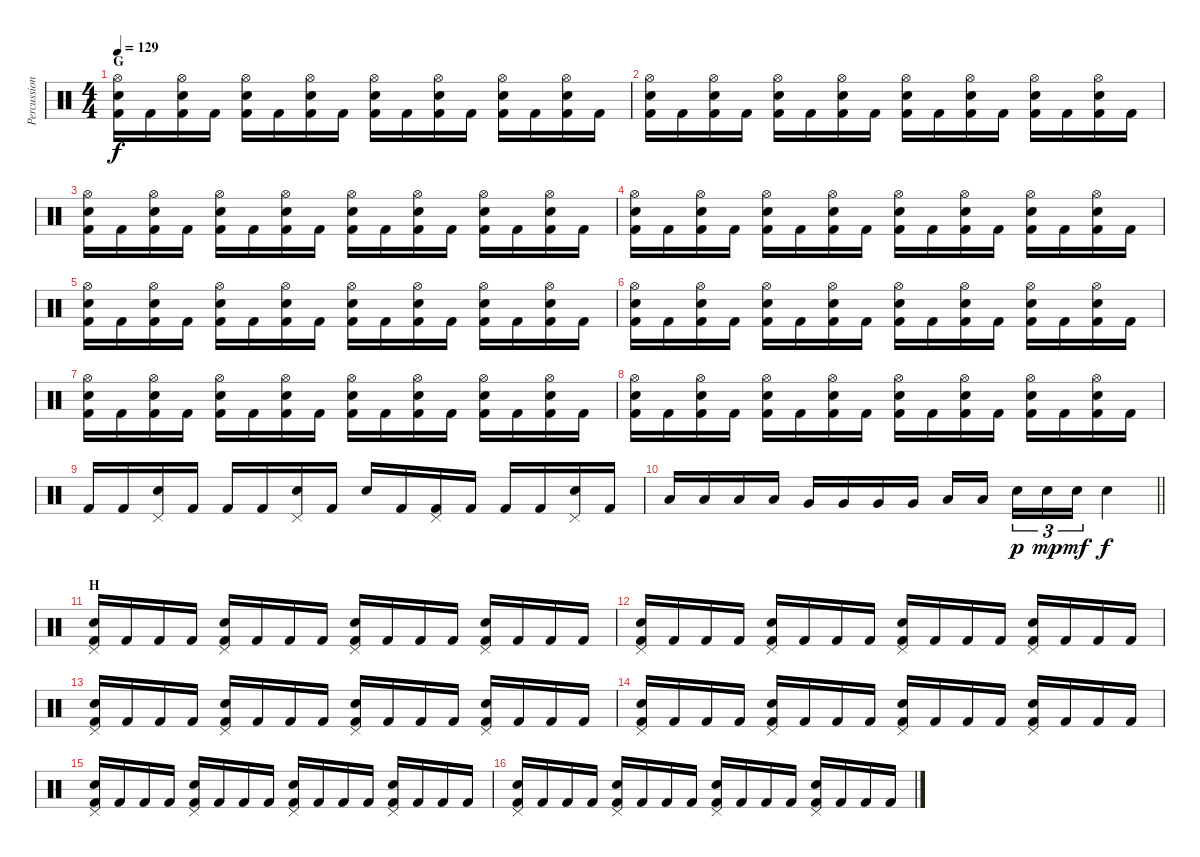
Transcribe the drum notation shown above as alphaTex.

\track ("Percussion" "Percussion") {instrument percussion}
\staff {score}
\articulation defaults
\ts (4 4)
\section ("" "G")
\tempo 129
\clef neutral
\ks c
("Hi-Hat (open)" "Snare (hit) 2" "Kick (hit) 2").16{dy f} "Kick (hit) 2".16 ("Hi-Hat (open)" "Snare (hit) 2" "Kick (hit) 2").16 "Kick (hit) 2".16 ("Hi-Hat (open)" "Snare (hit) 2" "Kick (hit) 2").16 "Kick (hit) 2".16 ("Hi-Hat (open)" "Snare (hit) 2" "Kick (hit) 2").16 "Kick (hit) 2".16 ("Hi-Hat (open)" "Snare (hit) 2" "Kick (hit) 2").16 "Kick (hit) 2".16 ("Hi-Hat (open)" "Snare (hit) 2" "Kick (hit) 2").16 "Kick (hit) 2".16 ("Hi-Hat (open)" "Snare (hit) 2" "Kick (hit) 2").16 "Kick (hit) 2".16 ("Hi-Hat (open)" "Snare (hit) 2" "Kick (hit) 2").16 "Kick (hit) 2".16 |
("Hi-Hat (open)" "Snare (hit) 2" "Kick (hit) 2").16 "Kick (hit) 2".16 ("Hi-Hat (open)" "Snare (hit) 2" "Kick (hit) 2").16 "Kick (hit) 2".16 ("Hi-Hat (open)" "Snare (hit) 2" "Kick (hit) 2").16 "Kick (hit) 2".16 ("Hi-Hat (open)" "Snare (hit) 2" "Kick (hit) 2").16 "Kick (hit) 2".16 ("Hi-Hat (open)" "Snare (hit) 2" "Kick (hit) 2").16 "Kick (hit) 2".16 ("Hi-Hat (open)" "Snare (hit) 2" "Kick (hit) 2").16 "Kick (hit) 2".16 ("Hi-Hat (open)" "Snare (hit) 2" "Kick (hit) 2").16 "Kick (hit) 2".16 ("Hi-Hat (open)" "Snare (hit) 2" "Kick (hit) 2").16 "Kick (hit) 2".16 |
("Hi-Hat (open)" "Snare (hit) 2" "Kick (hit) 2").16 "Kick (hit) 2".16 ("Hi-Hat (open)" "Snare (hit) 2" "Kick (hit) 2").16 "Kick (hit) 2".16 ("Hi-Hat (open)" "Snare (hit) 2" "Kick (hit) 2").16 "Kick (hit) 2".16 ("Hi-Hat (open)" "Snare (hit) 2" "Kick (hit) 2").16 "Kick (hit) 2".16 ("Hi-Hat (open)" "Snare (hit) 2" "Kick (hit) 2").16 "Kick (hit) 2".16 ("Hi-Hat (open)" "Snare (hit) 2" "Kick (hit) 2").16 "Kick (hit) 2".16 ("Hi-Hat (open)" "Snare (hit) 2" "Kick (hit) 2").16 "Kick (hit) 2".16 ("Hi-Hat (open)" "Snare (hit) 2" "Kick (hit) 2").16 "Kick (hit) 2".16 |
("Hi-Hat (open)" "Snare (hit) 2" "Kick (hit) 2").16 "Kick (hit) 2".16 ("Hi-Hat (open)" "Snare (hit) 2" "Kick (hit) 2").16 "Kick (hit) 2".16 ("Hi-Hat (open)" "Snare (hit) 2" "Kick (hit) 2").16 "Kick (hit) 2".16 ("Hi-Hat (open)" "Snare (hit) 2" "Kick (hit) 2").16 "Kick (hit) 2".16 ("Hi-Hat (open)" "Snare (hit) 2" "Kick (hit) 2").16 "Kick (hit) 2".16 ("Hi-Hat (open)" "Snare (hit) 2" "Kick (hit) 2").16 "Kick (hit) 2".16 ("Hi-Hat (open)" "Snare (hit) 2" "Kick (hit) 2").16 "Kick (hit) 2".16 ("Hi-Hat (open)" "Snare (hit) 2" "Kick (hit) 2").16 "Kick (hit) 2".16 |
("Hi-Hat (open)" "Snare (hit) 2" "Kick (hit) 2").16 "Kick (hit) 2".16 ("Hi-Hat (open)" "Snare (hit) 2" "Kick (hit) 2").16 "Kick (hit) 2".16 ("Hi-Hat (open)" "Snare (hit) 2" "Kick (hit) 2").16 "Kick (hit) 2".16 ("Hi-Hat (open)" "Snare (hit) 2" "Kick (hit) 2").16 "Kick (hit) 2".16 ("Hi-Hat (open)" "Snare (hit) 2" "Kick (hit) 2").16 "Kick (hit) 2".16 ("Hi-Hat (open)" "Snare (hit) 2" "Kick (hit) 2").16 "Kick (hit) 2".16 ("Hi-Hat (open)" "Snare (hit) 2" "Kick (hit) 2").16 "Kick (hit) 2".16 ("Hi-Hat (open)" "Snare (hit) 2" "Kick (hit) 2").16 "Kick (hit) 2".16 |
("Hi-Hat (open)" "Snare (hit) 2" "Kick (hit) 2").16 "Kick (hit) 2".16 ("Hi-Hat (open)" "Snare (hit) 2" "Kick (hit) 2").16 "Kick (hit) 2".16 ("Hi-Hat (open)" "Snare (hit) 2" "Kick (hit) 2").16 "Kick (hit) 2".16 ("Hi-Hat (open)" "Snare (hit) 2" "Kick (hit) 2").16 "Kick (hit) 2".16 ("Hi-Hat (open)" "Snare (hit) 2" "Kick (hit) 2").16 "Kick (hit) 2".16 ("Hi-Hat (open)" "Snare (hit) 2" "Kick (hit) 2").16 "Kick (hit) 2".16 ("Hi-Hat (open)" "Snare (hit) 2" "Kick (hit) 2").16 "Kick (hit) 2".16 ("Hi-Hat (open)" "Snare (hit) 2" "Kick (hit) 2").16 "Kick (hit) 2".16 |
("Hi-Hat (open)" "Snare (hit) 2" "Kick (hit) 2").16 "Kick (hit) 2".16 ("Hi-Hat (open)" "Snare (hit) 2" "Kick (hit) 2").16 "Kick (hit) 2".16 ("Hi-Hat (open)" "Snare (hit) 2" "Kick (hit) 2").16 "Kick (hit) 2".16 ("Hi-Hat (open)" "Snare (hit) 2" "Kick (hit) 2").16 "Kick (hit) 2".16 ("Hi-Hat (open)" "Snare (hit) 2" "Kick (hit) 2").16 "Kick (hit) 2".16 ("Hi-Hat (open)" "Snare (hit) 2" "Kick (hit) 2").16 "Kick (hit) 2".16 ("Hi-Hat (open)" "Snare (hit) 2" "Kick (hit) 2").16 "Kick (hit) 2".16 ("Hi-Hat (open)" "Snare (hit) 2" "Kick (hit) 2").16 "Kick (hit) 2".16 |
("Hi-Hat (open)" "Snare (hit) 2" "Kick (hit) 2").16 "Kick (hit) 2".16 ("Hi-Hat (open)" "Snare (hit) 2" "Kick (hit) 2").16 "Kick (hit) 2".16 ("Hi-Hat (open)" "Snare (hit) 2" "Kick (hit) 2").16 "Kick (hit) 2".16 ("Hi-Hat (open)" "Snare (hit) 2" "Kick (hit) 2").16 "Kick (hit) 2".16 ("Hi-Hat (open)" "Snare (hit) 2" "Kick (hit) 2").16 "Kick (hit) 2".16 ("Hi-Hat (open)" "Snare (hit) 2" "Kick (hit) 2").16 "Kick (hit) 2".16 ("Hi-Hat (open)" "Snare (hit) 2" "Kick (hit) 2").16 "Kick (hit) 2".16 ("Hi-Hat (open)" "Snare (hit) 2" "Kick (hit) 2").16 "Kick (hit) 2".16 |
"Kick (hit) 2".16 "Kick (hit) 2".16 ("Pedal Hi-Hat (hit)" "Snare (hit) 2").16 "Kick (hit) 2".16 "Kick (hit) 2".16 "Kick (hit) 2".16 ("Pedal Hi-Hat (hit)" "Snare (hit) 2").16 "Kick (hit) 2".16 "Snare (hit) 2".16 "Kick (hit) 2".16 ("Pedal Hi-Hat (hit)" "Kick (hit) 2").16 "Kick (hit) 2".16 "Kick (hit) 2".16 "Kick (hit) 2".16 ("Pedal Hi-Hat (hit)" "Snare (hit) 2").16 "Kick (hit) 2".16 |
\barLineRight lightlight "Low Tom (hit)".16 "Low Tom (hit)".16 "Low Tom (hit)".16 "Low Tom (hit)".16 "Very Low Tom (hit)".16 "Very Low Tom (hit)".16 "Very Low Tom (hit)".16 "Very Low Tom (hit)".16 "Low Floor Tom (hit)".16 "Low Floor Tom (hit)".16{beam splitsecondary} "Snare (hit) 2".16{tu (3 2) dy p} "Snare (hit) 2".16{tu (3 2) dy mp} "Snare (hit) 2".16{tu (3 2) dy mf} "Snare (hit) 2".4{dy f}
|
\section ("" "H")
("Pedal Hi-Hat (hit)" "Snare (hit) 2" "Kick (hit) 2").16 "Kick (hit) 2".16 "Kick (hit) 2".16 "Kick (hit) 2".16 ("Pedal Hi-Hat (hit)" "Snare (hit) 2" "Kick (hit) 2").16 "Kick (hit) 2".16 "Kick (hit) 2".16 "Kick (hit) 2".16 ("Pedal Hi-Hat (hit)" "Snare (hit) 2" "Kick (hit) 2").16 "Kick (hit) 2".16 "Kick (hit) 2".16 "Kick (hit) 2".16 ("Pedal Hi-Hat (hit)" "Snare (hit) 2" "Kick (hit) 2").16 "Kick (hit) 2".16 "Kick (hit) 2".16 "Kick (hit) 2".16 |
("Pedal Hi-Hat (hit)" "Snare (hit) 2" "Kick (hit) 2").16 "Kick (hit) 2".16 "Kick (hit) 2".16 "Kick (hit) 2".16 ("Pedal Hi-Hat (hit)" "Snare (hit) 2" "Kick (hit) 2").16 "Kick (hit) 2".16 "Kick (hit) 2".16 "Kick (hit) 2".16 ("Pedal Hi-Hat (hit)" "Snare (hit) 2" "Kick (hit) 2").16 "Kick (hit) 2".16 "Kick (hit) 2".16 "Kick (hit) 2".16 ("Pedal Hi-Hat (hit)" "Snare (hit) 2" "Kick (hit) 2").16 "Kick (hit) 2".16 "Kick (hit) 2".16 "Kick (hit) 2".16 |
("Pedal Hi-Hat (hit)" "Snare (hit) 2" "Kick (hit) 2").16 "Kick (hit) 2".16 "Kick (hit) 2".16 "Kick (hit) 2".16 ("Pedal Hi-Hat (hit)" "Snare (hit) 2" "Kick (hit) 2").16 "Kick (hit) 2".16 "Kick (hit) 2".16 "Kick (hit) 2".16 ("Pedal Hi-Hat (hit)" "Snare (hit) 2" "Kick (hit) 2").16 "Kick (hit) 2".16 "Kick (hit) 2".16 "Kick (hit) 2".16 ("Pedal Hi-Hat (hit)" "Snare (hit) 2" "Kick (hit) 2").16 "Kick (hit) 2".16 "Kick (hit) 2".16 "Kick (hit) 2".16 |
("Pedal Hi-Hat (hit)" "Snare (hit) 2" "Kick (hit) 2").16 "Kick (hit) 2".16 "Kick (hit) 2".16 "Kick (hit) 2".16 ("Pedal Hi-Hat (hit)" "Snare (hit) 2" "Kick (hit) 2").16 "Kick (hit) 2".16 "Kick (hit) 2".16 "Kick (hit) 2".16 ("Pedal Hi-Hat (hit)" "Snare (hit) 2" "Kick (hit) 2").16 "Kick (hit) 2".16 "Kick (hit) 2".16 "Kick (hit) 2".16 ("Pedal Hi-Hat (hit)" "Snare (hit) 2" "Kick (hit) 2").16 "Kick (hit) 2".16 "Kick (hit) 2".16 "Kick (hit) 2".16 |
("Pedal Hi-Hat (hit)" "Snare (hit) 2" "Kick (hit) 2").16 "Kick (hit) 2".16 "Kick (hit) 2".16 "Kick (hit) 2".16 ("Pedal Hi-Hat (hit)" "Snare (hit) 2" "Kick (hit) 2").16 "Kick (hit) 2".16 "Kick (hit) 2".16 "Kick (hit) 2".16 ("Pedal Hi-Hat (hit)" "Snare (hit) 2" "Kick (hit) 2").16 "Kick (hit) 2".16 "Kick (hit) 2".16 "Kick (hit) 2".16 ("Pedal Hi-Hat (hit)" "Snare (hit) 2" "Kick (hit) 2").16 "Kick (hit) 2".16 "Kick (hit) 2".16 "Kick (hit) 2".16 |
("Pedal Hi-Hat (hit)" "Snare (hit) 2" "Kick (hit) 2").16 "Kick (hit) 2".16 "Kick (hit) 2".16 "Kick (hit) 2".16 ("Pedal Hi-Hat (hit)" "Snare (hit) 2" "Kick (hit) 2").16 "Kick (hit) 2".16 "Kick (hit) 2".16 "Kick (hit) 2".16 ("Pedal Hi-Hat (hit)" "Snare (hit) 2" "Kick (hit) 2").16 "Kick (hit) 2".16 "Kick (hit) 2".16 "Kick (hit) 2".16 ("Pedal Hi-Hat (hit)" "Snare (hit) 2" "Kick (hit) 2").16 "Kick (hit) 2".16 "Kick (hit) 2".16 "Kick (hit) 2".16
